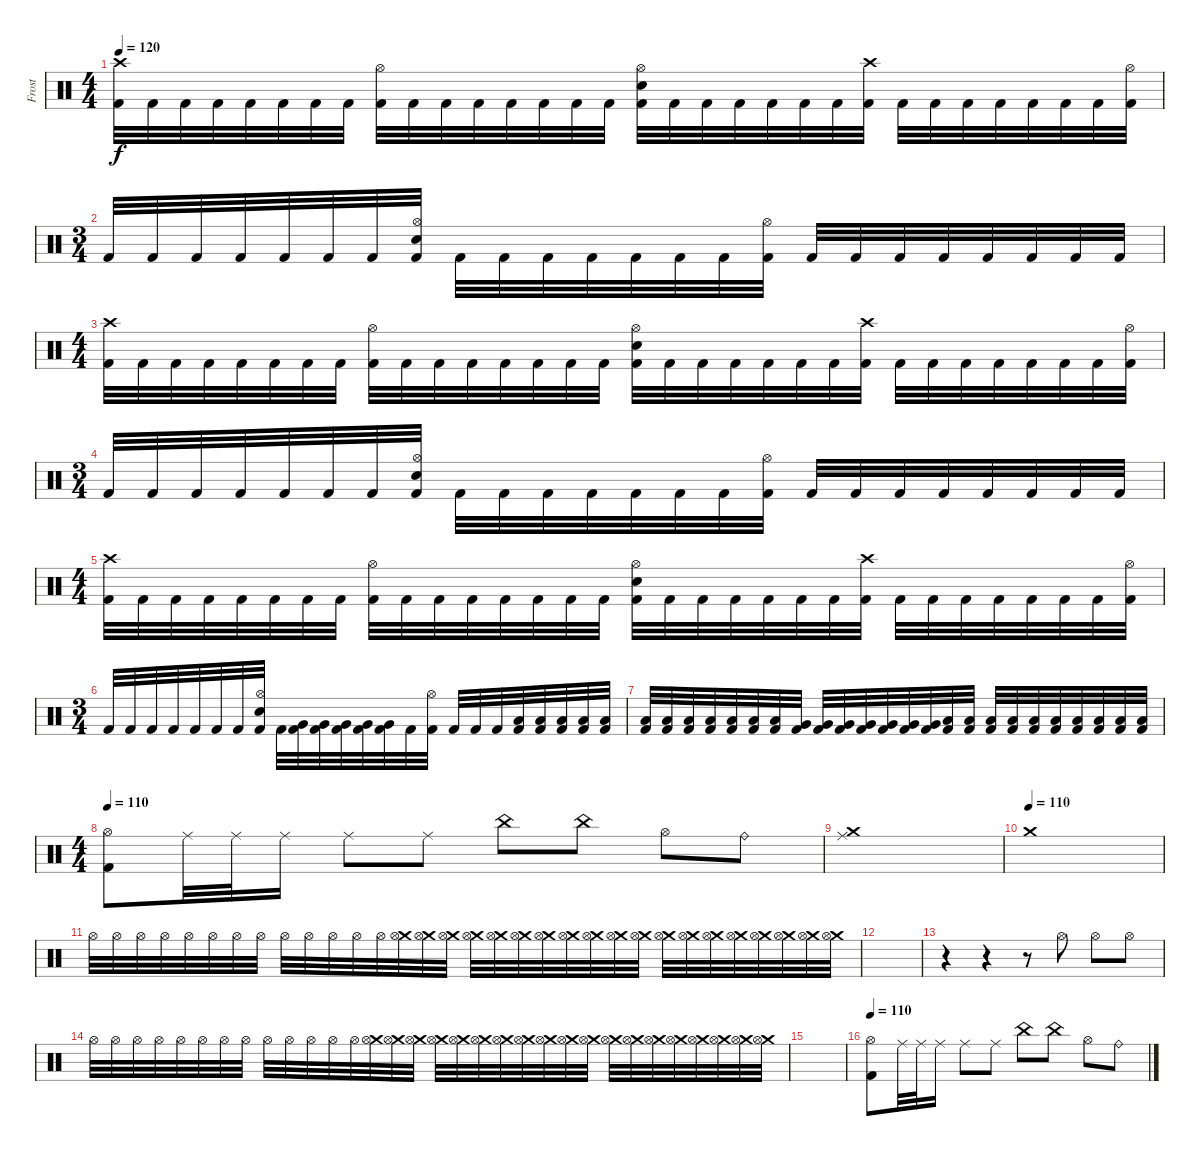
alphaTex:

\track ("Frost" "Frost") {instrument percussion}
\staff {score}
\articulation defaults
\ts (4 4)
\tempo 120
\clef neutral
\ks c
("Crash high (hit)" "Kick (hit) 2").32{dy f} "Kick (hit) 2".32 "Kick (hit) 2".32 "Kick (hit) 2".32 "Kick (hit) 2".32 "Kick (hit) 2".32 "Kick (hit) 2".32 "Kick (hit) 2".32 ("Hi-Hat (open)" "Kick (hit) 2").32 "Kick (hit) 2".32 "Kick (hit) 2".32 "Kick (hit) 2".32 "Kick (hit) 2".32 "Kick (hit) 2".32 "Kick (hit) 2".32 "Kick (hit) 2".32 ("Hi-Hat (open)" "Snare (hit) 2" "Kick (hit) 2").32 "Kick (hit) 2".32 "Kick (hit) 2".32 "Kick (hit) 2".32 "Kick (hit) 2".32 "Kick (hit) 2".32 "Kick (hit) 2".32 ("Crash high (hit)" "Kick (hit) 2").32 "Kick (hit) 2".32 "Kick (hit) 2".32 "Kick (hit) 2".32 "Kick (hit) 2".32 "Kick (hit) 2".32 "Kick (hit) 2".32 "Kick (hit) 2".32 ("Hi-Hat (open)" "Kick (hit) 2").32 |
\ts (3 4)
"Kick (hit) 2".32 "Kick (hit) 2".32 "Kick (hit) 2".32 "Kick (hit) 2".32 "Kick (hit) 2".32 "Kick (hit) 2".32 "Kick (hit) 2".32 ("Hi-Hat (open)" "Snare (hit) 2" "Kick (hit) 2").32 "Kick (hit) 2".32 "Kick (hit) 2".32 "Kick (hit) 2".32 "Kick (hit) 2".32 "Kick (hit) 2".32 "Kick (hit) 2".32 "Kick (hit) 2".32 ("Hi-Hat (open)" "Kick (hit) 2").32 "Kick (hit) 2".32 "Kick (hit) 2".32 "Kick (hit) 2".32 "Kick (hit) 2".32 "Kick (hit) 2".32 "Kick (hit) 2".32 "Kick (hit) 2".32 "Kick (hit) 2".32 |
\ts (4 4)
("Crash high (hit)" "Kick (hit) 2").32 "Kick (hit) 2".32 "Kick (hit) 2".32 "Kick (hit) 2".32 "Kick (hit) 2".32 "Kick (hit) 2".32 "Kick (hit) 2".32 "Kick (hit) 2".32 ("Hi-Hat (open)" "Kick (hit) 2").32 "Kick (hit) 2".32 "Kick (hit) 2".32 "Kick (hit) 2".32 "Kick (hit) 2".32 "Kick (hit) 2".32 "Kick (hit) 2".32 "Kick (hit) 2".32 ("Hi-Hat (open)" "Snare (hit) 2" "Kick (hit) 2").32 "Kick (hit) 2".32 "Kick (hit) 2".32 "Kick (hit) 2".32 "Kick (hit) 2".32 "Kick (hit) 2".32 "Kick (hit) 2".32 ("Crash high (hit)" "Kick (hit) 2").32 "Kick (hit) 2".32 "Kick (hit) 2".32 "Kick (hit) 2".32 "Kick (hit) 2".32 "Kick (hit) 2".32 "Kick (hit) 2".32 "Kick (hit) 2".32 ("Hi-Hat (open)" "Kick (hit) 2").32 |
\ts (3 4)
"Kick (hit) 2".32 "Kick (hit) 2".32 "Kick (hit) 2".32 "Kick (hit) 2".32 "Kick (hit) 2".32 "Kick (hit) 2".32 "Kick (hit) 2".32 ("Hi-Hat (open)" "Snare (hit) 2" "Kick (hit) 2").32 "Kick (hit) 2".32 "Kick (hit) 2".32 "Kick (hit) 2".32 "Kick (hit) 2".32 "Kick (hit) 2".32 "Kick (hit) 2".32 "Kick (hit) 2".32 ("Hi-Hat (open)" "Kick (hit) 2").32 "Kick (hit) 2".32 "Kick (hit) 2".32 "Kick (hit) 2".32 "Kick (hit) 2".32 "Kick (hit) 2".32 "Kick (hit) 2".32 "Kick (hit) 2".32 "Kick (hit) 2".32 |
\ts (4 4)
("Crash high (hit)" "Kick (hit) 2").32 "Kick (hit) 2".32 "Kick (hit) 2".32 "Kick (hit) 2".32 "Kick (hit) 2".32 "Kick (hit) 2".32 "Kick (hit) 2".32 "Kick (hit) 2".32 ("Hi-Hat (open)" "Kick (hit) 2").32 "Kick (hit) 2".32 "Kick (hit) 2".32 "Kick (hit) 2".32 "Kick (hit) 2".32 "Kick (hit) 2".32 "Kick (hit) 2".32 "Kick (hit) 2".32 ("Hi-Hat (open)" "Snare (hit) 2" "Kick (hit) 2").32 "Kick (hit) 2".32 "Kick (hit) 2".32 "Kick (hit) 2".32 "Kick (hit) 2".32 "Kick (hit) 2".32 "Kick (hit) 2".32 ("Crash high (hit)" "Kick (hit) 2").32 "Kick (hit) 2".32 "Kick (hit) 2".32 "Kick (hit) 2".32 "Kick (hit) 2".32 "Kick (hit) 2".32 "Kick (hit) 2".32 "Kick (hit) 2".32 ("Hi-Hat (open)" "Kick (hit) 2").32 |
\ts (3 4)
"Kick (hit) 2".32 "Kick (hit) 2".32 "Kick (hit) 2".32 "Kick (hit) 2".32 "Kick (hit) 2".32 "Kick (hit) 2".32 "Kick (hit) 2".32 ("Hi-Hat (open)" "Snare (hit) 2" "Kick (hit) 2").32 "Kick (hit) 2".32 ("Very Low Tom (hit)" "Kick (hit) 2").32 ("Very Low Tom (hit)" "Kick (hit) 2").32 ("Very Low Tom (hit)" "Kick (hit) 2").32 ("Very Low Tom (hit)" "Kick (hit) 2").32 ("Very Low Tom (hit)" "Kick (hit) 2").32 "Kick (hit) 2".32 ("Hi-Hat (open)" "Kick (hit) 2").32 "Kick (hit) 2".32 "Kick (hit) 2".32 "Kick (hit) 2".32 ("Low Tom (hit)" "Kick (hit) 2").32 ("Low Tom (hit)" "Kick (hit) 2").32 ("Low Tom (hit)" "Kick (hit) 2").32 ("Low Tom (hit)" "Kick (hit) 2").32 ("Low Tom (hit)" "Kick (hit) 2").32 |
("Low Tom (hit)" "Kick (hit) 2").32 ("Low Tom (hit)" "Kick (hit) 2").32 ("Low Tom (hit)" "Kick (hit) 2").32 ("Low Tom (hit)" "Kick (hit) 2").32 ("Low Tom (hit)" "Kick (hit) 2").32 ("Low Tom (hit)" "Kick (hit) 2").32 ("Low Tom (hit)" "Kick (hit) 2").32 ("Very Low Tom (hit)" "Kick (hit) 2").32 ("Very Low Tom (hit)" "Kick (hit) 2").32 ("Very Low Tom (hit)" "Kick (hit) 2").32 ("Very Low Tom (hit)" "Kick (hit) 2").32 ("Very Low Tom (hit)" "Kick (hit) 2").32 ("Very Low Tom (hit)" "Kick (hit) 2").32 ("Very Low Tom (hit)" "Kick (hit) 2").32 ("Low Floor Tom (hit)" "Kick (hit) 2").32 ("Low Floor Tom (hit)" "Kick (hit) 2").32 ("Low Floor Tom (hit)" "Kick (hit) 2").32 ("Low Floor Tom (hit)" "Kick (hit) 2").32 ("Low Floor Tom (hit)" "Kick (hit) 2").32 ("Low Floor Tom (hit)" "Kick (hit) 2").32 ("Low Floor Tom (hit)" "Kick (hit) 2").32 ("Low Floor Tom (hit)" "Kick (hit) 2").32 ("Low Floor Tom (hit)" "Kick (hit) 2").32 ("Low Floor Tom (hit)" "Kick (hit) 2").32 |
\ts (4 4)
\tempo 110
("Hi-Hat (open)" "Kick (hit) 2").8 "Ride (middle)".32 "Ride (middle)".32 "Ride (middle)".16 "Ride (middle)".8 "Ride (middle)".8 "China (hit)".8 "China (hit)".8 "Hi-Hat (open)".8 "Ride (bell)".8 |
("Crash medium (hit)" "Ride (middle)").1 |
\tempo (110)
"Crash medium (hit)".1 |
"Hi-Hat (open)".32{volume 0} "Hi-Hat (open)".32{volume 15} "Hi-Hat (open)".32 "Hi-Hat (open)".32 "Hi-Hat (open)".32 "Hi-Hat (open)".32 "Hi-Hat (open)".32 "Hi-Hat (open)".32 "Hi-Hat (open)".32 "Hi-Hat (open)".32 "Hi-Hat (open)".32 "Hi-Hat (open)".32 "Hi-Hat (open)".32 ("Crash medium (hit)" "Hi-Hat (open)").32 ("Crash medium (hit)" "Hi-Hat (open)").32 ("Crash medium (hit)" "Hi-Hat (open)").32 ("Crash medium (hit)" "Hi-Hat (open)").32 ("Crash medium (hit)" "Hi-Hat (open)").32 ("Crash medium (hit)" "Hi-Hat (open)").32 ("Crash medium (hit)" "Hi-Hat (open)").32 ("Crash medium (hit)" "Hi-Hat (open)").32 ("Crash medium (hit)" "Hi-Hat (open)").32 ("Crash medium (hit)" "Hi-Hat (open)").32 ("Crash medium (hit)" "Hi-Hat (open)").32 ("Crash medium (hit)" "Hi-Hat (open)").32 ("Crash medium (hit)" "Hi-Hat (open)").32 ("Crash medium (hit)" "Hi-Hat (open)").32 ("Crash medium (hit)" "Hi-Hat (open)").32 ("Crash medium (hit)" "Hi-Hat (open)").32 ("Crash medium (hit)" "Hi-Hat (open)").32 ("Crash medium (hit)" "Hi-Hat (open)").32 ("Crash medium (hit)" "Hi-Hat (open)").32 |
|
r.4 r.4 r.8 "Hi-Hat (open)".8 "Hi-Hat (open)".8 "Hi-Hat (open)".8 |
"Hi-Hat (open)".32{volume 0} "Hi-Hat (open)".32{volume 15} "Hi-Hat (open)".32 "Hi-Hat (open)".32 "Hi-Hat (open)".32 "Hi-Hat (open)".32 "Hi-Hat (open)".32 "Hi-Hat (open)".32 "Hi-Hat (open)".32 "Hi-Hat (open)".32 "Hi-Hat (open)".32 "Hi-Hat (open)".32 "Hi-Hat (open)".32 ("Crash medium (hit)" "Hi-Hat (open)").32 ("Crash medium (hit)" "Hi-Hat (open)").32 ("Crash medium (hit)" "Hi-Hat (open)").32 ("Crash medium (hit)" "Hi-Hat (open)").32 ("Crash medium (hit)" "Hi-Hat (open)").32 ("Crash medium (hit)" "Hi-Hat (open)").32 ("Crash medium (hit)" "Hi-Hat (open)").32 ("Crash medium (hit)" "Hi-Hat (open)").32 ("Crash medium (hit)" "Hi-Hat (open)").32 ("Crash medium (hit)" "Hi-Hat (open)").32 ("Crash medium (hit)" "Hi-Hat (open)").32 ("Crash medium (hit)" "Hi-Hat (open)").32 ("Crash medium (hit)" "Hi-Hat (open)").32 ("Crash medium (hit)" "Hi-Hat (open)").32 ("Crash medium (hit)" "Hi-Hat (open)").32 ("Crash medium (hit)" "Hi-Hat (open)").32 ("Crash medium (hit)" "Hi-Hat (open)").32 ("Crash medium (hit)" "Hi-Hat (open)").32 ("Crash medium (hit)" "Hi-Hat (open)").32 |
|
\tempo 110
("Hi-Hat (open)" "Kick (hit) 2").8 "Ride (middle)".32 "Ride (middle)".32 "Ride (middle)".16 "Ride (middle)".8 "Ride (middle)".8 "China (hit)".8 "China (hit)".8 "Hi-Hat (open)".8 "Ride (bell)".8
